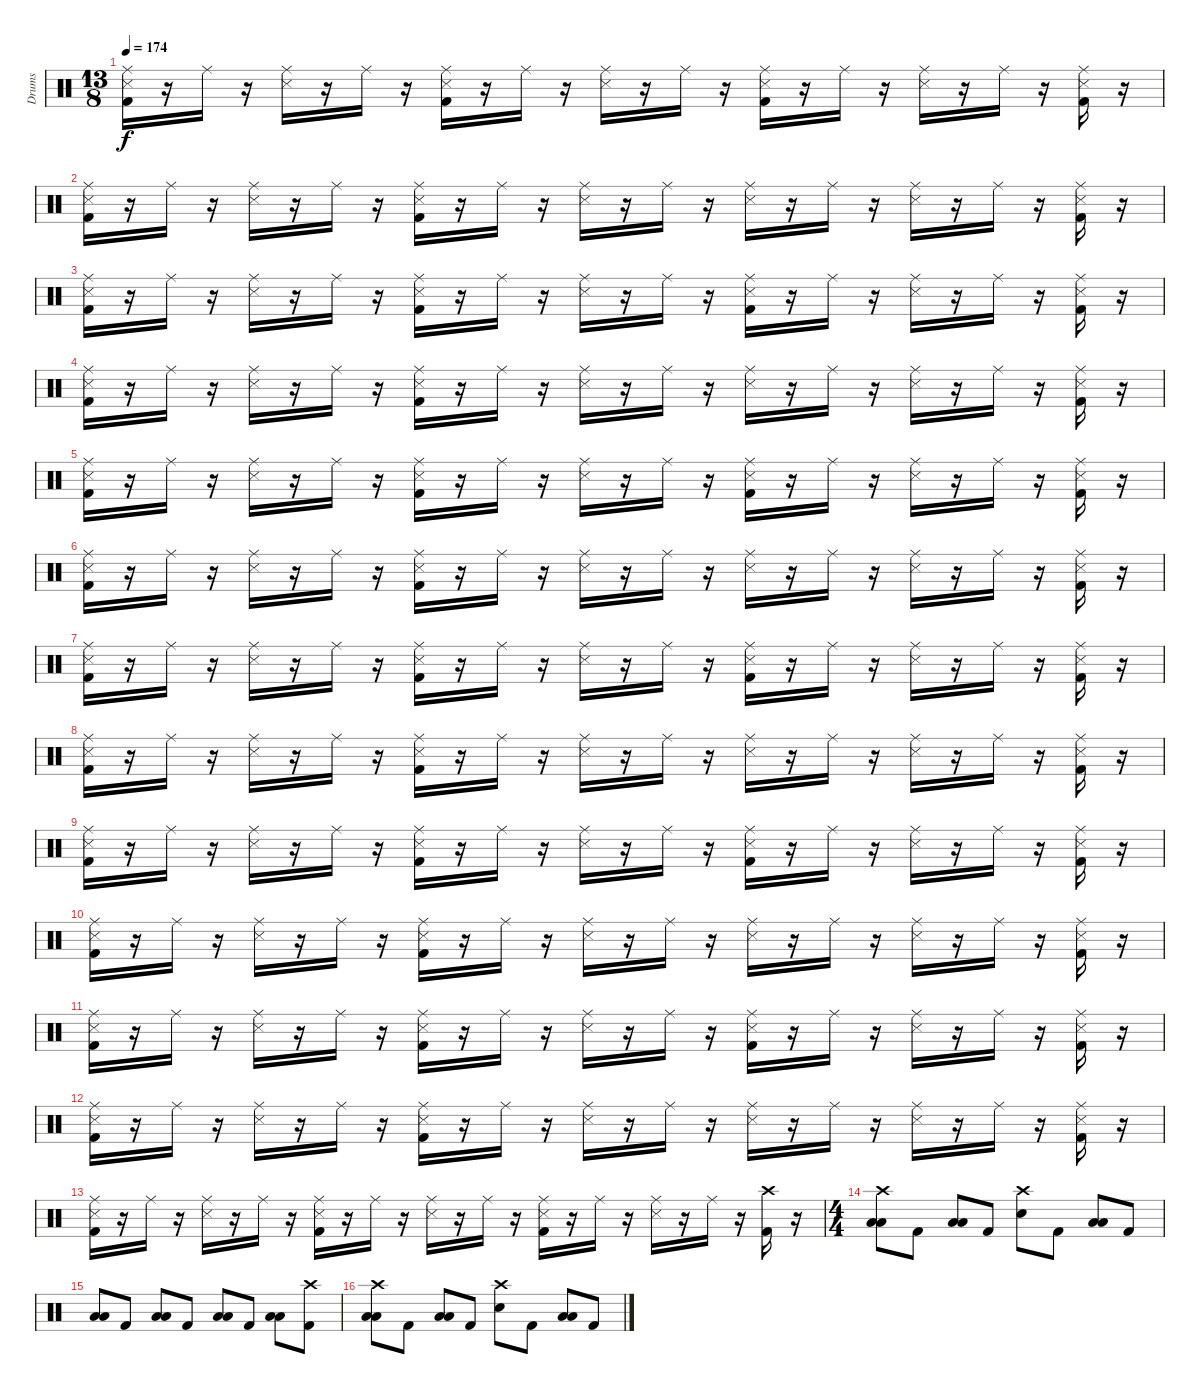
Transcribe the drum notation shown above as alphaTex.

\track ("Drums" "Drums") {instrument percussion}
\staff {score}
\articulation defaults
\ts (13 8)
\tempo 174
\clef neutral
\ks c
("Ride (middle)" "Snare (side stick) 3" "Kick (hit) 2").16{dy f} r.16 "Ride (middle)".16 r.16 ("Ride (middle)" "Snare (side stick) 3").16 r.16 "Ride (middle)".16 r.16 ("Ride (middle)" "Snare (side stick) 3" "Kick (hit) 2").16 r.16 "Ride (middle)".16 r.16 ("Ride (middle)" "Snare (side stick) 3").16 r.16 "Ride (middle)".16 r.16 ("Ride (middle)" "Snare (side stick) 3" "Kick (hit) 2").16 r.16 "Ride (middle)".16 r.16 ("Ride (middle)" "Snare (side stick) 3").16 r.16 "Ride (middle)".16 r.16 ("Ride (middle)" "Snare (side stick) 3" "Kick (hit) 2").16 r.16 |
("Ride (middle)" "Snare (side stick) 3" "Kick (hit) 2").16 r.16 "Ride (middle)".16 r.16 ("Ride (middle)" "Snare (side stick) 3").16 r.16 "Ride (middle)".16 r.16 ("Ride (middle)" "Snare (side stick) 3" "Kick (hit) 2").16 r.16 "Ride (middle)".16 r.16 ("Ride (middle)" "Snare (side stick) 3").16 r.16 "Ride (middle)".16 r.16 ("Ride (middle)" "Snare (side stick) 3").16 r.16 "Ride (middle)".16 r.16 ("Ride (middle)" "Snare (side stick) 3").16 r.16 "Ride (middle)".16 r.16 ("Ride (middle)" "Snare (side stick) 3" "Kick (hit) 2").16 r.16 |
("Ride (middle)" "Snare (side stick) 3" "Kick (hit) 2").16 r.16 "Ride (middle)".16 r.16 ("Ride (middle)" "Snare (side stick) 3").16 r.16 "Ride (middle)".16 r.16 ("Ride (middle)" "Snare (side stick) 3" "Kick (hit) 2").16 r.16 "Ride (middle)".16 r.16 ("Ride (middle)" "Snare (side stick) 3").16 r.16 "Ride (middle)".16 r.16 ("Ride (middle)" "Snare (side stick) 3" "Kick (hit) 2").16 r.16 "Ride (middle)".16 r.16 ("Ride (middle)" "Snare (side stick) 3").16 r.16 "Ride (middle)".16 r.16 ("Ride (middle)" "Snare (side stick) 3" "Kick (hit) 2").16 r.16 |
("Ride (middle)" "Snare (side stick) 3" "Kick (hit) 2").16 r.16 "Ride (middle)".16 r.16 ("Ride (middle)" "Snare (side stick) 3").16 r.16 "Ride (middle)".16 r.16 ("Ride (middle)" "Snare (side stick) 3" "Kick (hit) 2").16 r.16 "Ride (middle)".16 r.16 ("Ride (middle)" "Snare (side stick) 3").16 r.16 "Ride (middle)".16 r.16 ("Ride (middle)" "Snare (side stick) 3").16 r.16 "Ride (middle)".16 r.16 ("Ride (middle)" "Snare (side stick) 3").16 r.16 "Ride (middle)".16 r.16 ("Ride (middle)" "Snare (side stick) 3" "Kick (hit) 2").16 r.16 |
("Ride (middle)" "Snare (side stick) 3" "Kick (hit) 2").16 r.16 "Ride (middle)".16 r.16 ("Ride (middle)" "Snare (side stick) 3").16 r.16 "Ride (middle)".16 r.16 ("Ride (middle)" "Snare (side stick) 3" "Kick (hit) 2").16 r.16 "Ride (middle)".16 r.16 ("Ride (middle)" "Snare (side stick) 3").16 r.16 "Ride (middle)".16 r.16 ("Ride (middle)" "Snare (side stick) 3" "Kick (hit) 2").16 r.16 "Ride (middle)".16 r.16 ("Ride (middle)" "Snare (side stick) 3").16 r.16 "Ride (middle)".16 r.16 ("Ride (middle)" "Snare (side stick) 3" "Kick (hit) 2").16 r.16 |
("Ride (middle)" "Snare (side stick) 3" "Kick (hit) 2").16 r.16 "Ride (middle)".16 r.16 ("Ride (middle)" "Snare (side stick) 3").16 r.16 "Ride (middle)".16 r.16 ("Ride (middle)" "Snare (side stick) 3" "Kick (hit) 2").16 r.16 "Ride (middle)".16 r.16 ("Ride (middle)" "Snare (side stick) 3").16 r.16 "Ride (middle)".16 r.16 ("Ride (middle)" "Snare (side stick) 3").16 r.16 "Ride (middle)".16 r.16 ("Ride (middle)" "Snare (side stick) 3").16 r.16 "Ride (middle)".16 r.16 ("Ride (middle)" "Snare (side stick) 3" "Kick (hit) 2").16 r.16 |
("Ride (middle)" "Snare (side stick) 3" "Kick (hit) 2").16 r.16 "Ride (middle)".16 r.16 ("Ride (middle)" "Snare (side stick) 3").16 r.16 "Ride (middle)".16 r.16 ("Ride (middle)" "Snare (side stick) 3" "Kick (hit) 2").16 r.16 "Ride (middle)".16 r.16 ("Ride (middle)" "Snare (side stick) 3").16 r.16 "Ride (middle)".16 r.16 ("Ride (middle)" "Snare (side stick) 3" "Kick (hit) 2").16 r.16 "Ride (middle)".16 r.16 ("Ride (middle)" "Snare (side stick) 3").16 r.16 "Ride (middle)".16 r.16 ("Ride (middle)" "Snare (side stick) 3" "Kick (hit) 2").16 r.16 |
("Ride (middle)" "Snare (side stick) 3" "Kick (hit) 2").16 r.16 "Ride (middle)".16 r.16 ("Ride (middle)" "Snare (side stick) 3").16 r.16 "Ride (middle)".16 r.16 ("Ride (middle)" "Snare (side stick) 3" "Kick (hit) 2").16 r.16 "Ride (middle)".16 r.16 ("Ride (middle)" "Snare (side stick) 3").16 r.16 "Ride (middle)".16 r.16 ("Ride (middle)" "Snare (side stick) 3").16 r.16 "Ride (middle)".16 r.16 ("Ride (middle)" "Snare (side stick) 3").16 r.16 "Ride (middle)".16 r.16 ("Ride (middle)" "Snare (side stick) 3" "Kick (hit) 2").16 r.16 |
("Ride (middle)" "Snare (side stick) 3" "Kick (hit) 2").16 r.16 "Ride (middle)".16 r.16 ("Ride (middle)" "Snare (side stick) 3").16 r.16 "Ride (middle)".16 r.16 ("Ride (middle)" "Snare (side stick) 3" "Kick (hit) 2").16 r.16 "Ride (middle)".16 r.16 ("Ride (middle)" "Snare (side stick) 3").16 r.16 "Ride (middle)".16 r.16 ("Ride (middle)" "Snare (side stick) 3" "Kick (hit) 2").16 r.16 "Ride (middle)".16 r.16 ("Ride (middle)" "Snare (side stick) 3").16 r.16 "Ride (middle)".16 r.16 ("Ride (middle)" "Snare (side stick) 3" "Kick (hit) 2").16 r.16 |
("Ride (middle)" "Snare (side stick) 3" "Kick (hit) 2").16 r.16 "Ride (middle)".16 r.16 ("Ride (middle)" "Snare (side stick) 3").16 r.16 "Ride (middle)".16 r.16 ("Ride (middle)" "Snare (side stick) 3" "Kick (hit) 2").16 r.16 "Ride (middle)".16 r.16 ("Ride (middle)" "Snare (side stick) 3").16 r.16 "Ride (middle)".16 r.16 ("Ride (middle)" "Snare (side stick) 3").16 r.16 "Ride (middle)".16 r.16 ("Ride (middle)" "Snare (side stick) 3").16 r.16 "Ride (middle)".16 r.16 ("Ride (middle)" "Snare (side stick) 3" "Kick (hit) 2").16 r.16 |
("Ride (middle)" "Snare (side stick) 3" "Kick (hit) 2").16 r.16 "Ride (middle)".16 r.16 ("Ride (middle)" "Snare (side stick) 3").16 r.16 "Ride (middle)".16 r.16 ("Ride (middle)" "Snare (side stick) 3" "Kick (hit) 2").16 r.16 "Ride (middle)".16 r.16 ("Ride (middle)" "Snare (side stick) 3").16 r.16 "Ride (middle)".16 r.16 ("Ride (middle)" "Snare (side stick) 3" "Kick (hit) 2").16 r.16 "Ride (middle)".16 r.16 ("Ride (middle)" "Snare (side stick) 3").16 r.16 "Ride (middle)".16 r.16 ("Ride (middle)" "Snare (side stick) 3" "Kick (hit) 2").16 r.16 |
("Ride (middle)" "Snare (side stick) 3" "Kick (hit) 2").16 r.16 "Ride (middle)".16 r.16 ("Ride (middle)" "Snare (side stick) 3").16 r.16 "Ride (middle)".16 r.16 ("Ride (middle)" "Snare (side stick) 3" "Kick (hit) 2").16 r.16 "Ride (middle)".16 r.16 ("Ride (middle)" "Snare (side stick) 3").16 r.16 "Ride (middle)".16 r.16 ("Ride (middle)" "Snare (side stick) 3").16 r.16 "Ride (middle)".16 r.16 ("Ride (middle)" "Snare (side stick) 3").16 r.16 "Ride (middle)".16 r.16 ("Ride (middle)" "Snare (side stick) 3" "Kick (hit) 2").16 r.16 |
("Ride (middle)" "Snare (side stick) 3" "Kick (hit) 2").16 r.16 "Ride (middle)".16 r.16 ("Ride (middle)" "Snare (side stick) 3").16 r.16 "Ride (middle)".16 r.16 ("Ride (middle)" "Snare (side stick) 3" "Kick (hit) 2").16 r.16 "Ride (middle)".16 r.16 ("Ride (middle)" "Snare (side stick) 3").16 r.16 "Ride (middle)".16 r.16 ("Ride (middle)" "Snare (side stick) 3" "Kick (hit) 2").16 r.16 "Ride (middle)".16 r.16 ("Ride (middle)" "Snare (side stick) 3").16 r.16 "Ride (middle)".16 r.16 ("Crash high (hit)" "Kick (hit) 2").16 r.16 |
\ts (4 4)
("Crash high (hit)" "Low Tom (hit)" "Low Floor Tom (hit)").8 "Kick (hit) 2".8 ("Low Tom (hit)" "Low Floor Tom (hit)").8 "Kick (hit) 2".8 ("Crash high (hit)" "Electric Snare (hit)").8 "Kick (hit) 2".8 ("Low Tom (hit)" "Low Tom (hit)").8 "Kick (hit) 2".8 |
("Low Tom (hit)" "Low Floor Tom (hit)").8 "Kick (hit) 2".8 ("Low Tom (hit)" "Low Floor Tom (hit)").8 "Kick (hit) 2".8 ("Low Tom (hit)" "Low Floor Tom (hit)").8 "Kick (hit) 2".8 ("Low Tom (hit)" "Low Tom (hit)").8 ("Crash high (hit)" "Kick (hit) 2").8 |
("Crash high (hit)" "Low Tom (hit)" "Low Floor Tom (hit)").8 "Kick (hit) 2".8 ("Low Tom (hit)" "Low Floor Tom (hit)").8 "Kick (hit) 2".8 ("Crash high (hit)" "Electric Snare (hit)").8 "Kick (hit) 2".8 ("Low Tom (hit)" "Low Tom (hit)").8 "Kick (hit) 2".8
